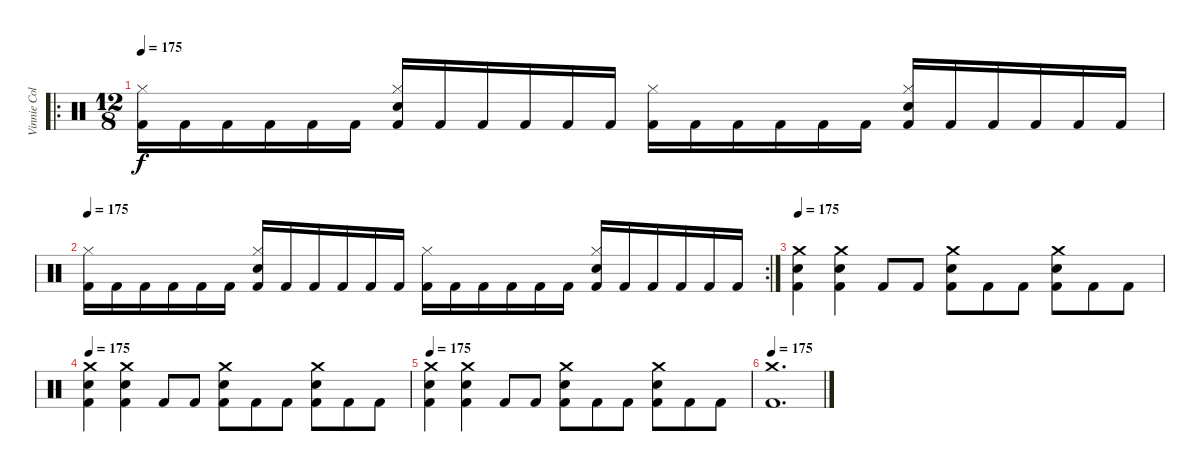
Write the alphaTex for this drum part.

\track ("Vinnie Colaiuta" "Vinnie Col") {instrument percussion}
\staff {score}
\articulation defaults
\ro
\ts (12 8)
\tempo 175
\clef neutral
\ks c
("Kick (hit) 2" "Hi-Hat (closed)").16{dy f} "Kick (hit) 2".16 "Kick (hit) 2".16 "Kick (hit) 2".16 "Kick (hit) 2".16 "Kick (hit) 2".16 ("Kick (hit) 2" "Hi-Hat (closed)" "Snare (hit) 2").16 "Kick (hit) 2".16 "Kick (hit) 2".16 "Kick (hit) 2".16 "Kick (hit) 2".16 "Kick (hit) 2".16 ("Kick (hit) 2" "Hi-Hat (closed)").16 "Kick (hit) 2".16 "Kick (hit) 2".16 "Kick (hit) 2".16 "Kick (hit) 2".16 "Kick (hit) 2".16 ("Kick (hit) 2" "Hi-Hat (closed)" "Snare (hit) 2").16 "Kick (hit) 2".16 "Kick (hit) 2".16 "Kick (hit) 2".16 "Kick (hit) 2".16 "Kick (hit) 2".16 |
\rc 2
\tempo 175
("Kick (hit) 2" "Hi-Hat (closed)").16 "Kick (hit) 2".16 "Kick (hit) 2".16 "Kick (hit) 2".16 "Kick (hit) 2".16 "Kick (hit) 2".16 ("Kick (hit) 2" "Hi-Hat (closed)" "Snare (hit) 2").16 "Kick (hit) 2".16 "Kick (hit) 2".16 "Kick (hit) 2".16 "Kick (hit) 2".16 "Kick (hit) 2".16 ("Kick (hit) 2" "Hi-Hat (closed)").16 "Kick (hit) 2".16 "Kick (hit) 2".16 "Kick (hit) 2".16 "Kick (hit) 2".16 "Kick (hit) 2".16 ("Kick (hit) 2" "Hi-Hat (closed)" "Snare (hit) 2").16 "Kick (hit) 2".16 "Kick (hit) 2".16 "Kick (hit) 2".16 "Kick (hit) 2".16 "Kick (hit) 2".16 |
\tempo 175
("Kick (hit) 2" "Snare (hit) 2" "Crash medium (hit)").4 ("Kick (hit) 2" "Snare (hit) 2" "Crash medium (hit)").4 "Kick (hit) 2".8 "Kick (hit) 2".8 ("Kick (hit) 2" "Snare (hit) 2" "Crash medium (hit)").8 "Kick (hit) 2".8 "Kick (hit) 2".8 ("Kick (hit) 2" "Snare (hit) 2" "Crash medium (hit)").8 "Kick (hit) 2".8 "Kick (hit) 2".8 |
\tempo 175
("Kick (hit) 2" "Snare (hit) 2" "Crash medium (hit)").4 ("Kick (hit) 2" "Snare (hit) 2" "Crash medium (hit)").4 "Kick (hit) 2".8 "Kick (hit) 2".8 ("Kick (hit) 2" "Snare (hit) 2" "Crash medium (hit)").8 "Kick (hit) 2".8 "Kick (hit) 2".8 ("Kick (hit) 2" "Snare (hit) 2" "Crash medium (hit)").8 "Kick (hit) 2".8 "Kick (hit) 2".8 |
\tempo 175
("Kick (hit) 2" "Snare (hit) 2" "Crash medium (hit)").4 ("Kick (hit) 2" "Snare (hit) 2" "Crash medium (hit)").4 "Kick (hit) 2".8 "Kick (hit) 2".8 ("Kick (hit) 2" "Snare (hit) 2" "Crash medium (hit)").8 "Kick (hit) 2".8 "Kick (hit) 2".8 ("Kick (hit) 2" "Snare (hit) 2" "Crash medium (hit)").8 "Kick (hit) 2".8 "Kick (hit) 2".8 |
\tempo 175
("Kick (hit) 2" "Crash medium (hit)").1{d}
